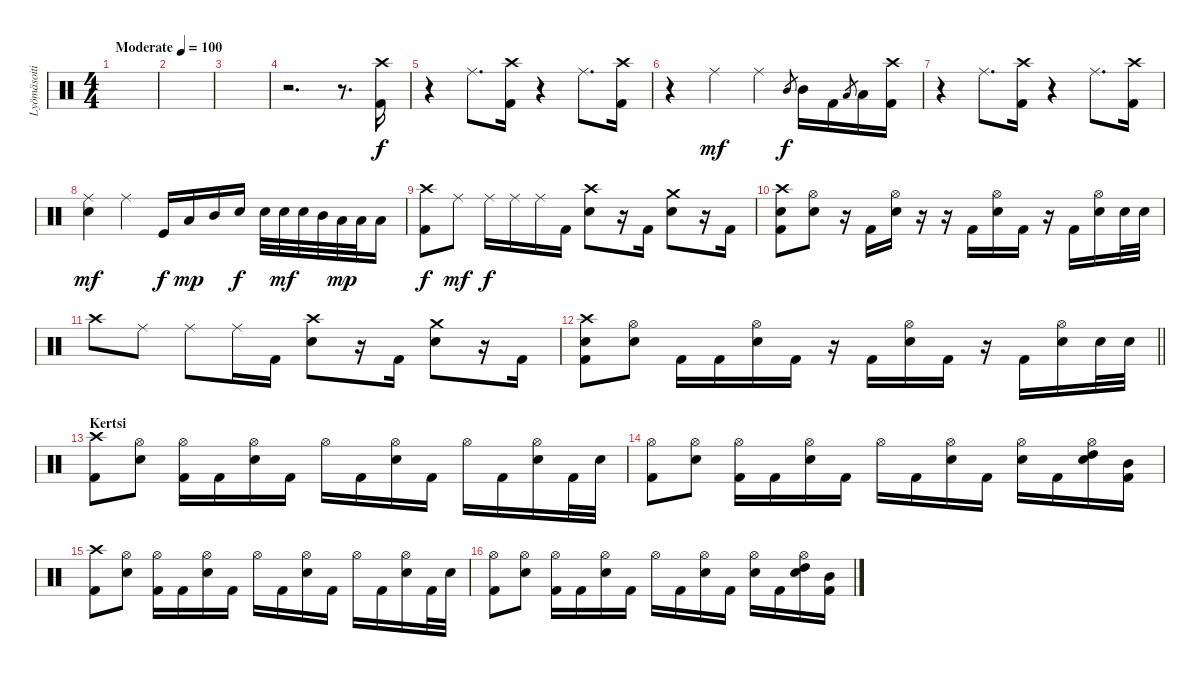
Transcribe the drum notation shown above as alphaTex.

\track ("Lyömäsoitin" "Lyömäsoiti") {instrument percussion}
\staff {score}
\articulation defaults
\ts (4 4)
\tempo (100 "Moderate")
\clef neutral
\ks c
|
|
|
r.2{d} r.8{d} ("Crash high (hit)" "Kick (hit) 2").16 |
r.4 "Ride (middle)".8{d} ("Crash high (hit)" "Kick (hit) 2").16 r.4 "Ride (middle)".8{d} ("Crash high (hit)" "Kick (hit) 2").16 |
r.4 "Ride (middle)".4{dy mf} "Ride (middle)".4 "Mid Tom (hit)".8{gr dy f} "Mid Tom (hit)".16 "Kick (hit) 2".16 "Low Tom (hit)".8{gr} "Low Tom (hit)".16 ("Crash high (hit)" "Kick (hit) 2").16 |
r.4 "Ride (middle)".8{d} ("Crash high (hit)" "Kick (hit) 2").16 r.4 "Ride (middle)".8{d} ("Crash high (hit)" "Kick (hit) 2").16 |
("Ride (middle)" "Snare (hit) 2").4{dy mf} "Ride (middle)".4 "Kick (hit)".16{dy f} "Low Tom (hit)".16{dy mp} "Mid Tom (hit)".16 "Electric Snare (hit)".16{dy f} "Electric Snare (hit)".32 "Electric Snare (hit)".32{dy mf} "Electric Snare (hit)".32 "Mid Tom (hit)".32 "Low Tom (hit)".32{dy mp} "Low Tom (hit)".32 "Low Tom (hit)".16 |
("Crash high (hit)" "Kick (hit) 2").8{dy f} "Ride (middle)".8{dy mf} "Ride (middle)".16{dy f} "Ride (middle)".16 "Ride (middle)".16 "Kick (hit) 2".16 ("Crash high (hit)" "Snare (hit) 2").8 r.16 "Kick (hit) 2".16 ("Crash medium (hit)" "Snare (hit) 2").8 r.16 "Kick (hit) 2".16 |
("Crash high (hit)" "Snare (hit) 2" "Kick (hit) 2").8 ("Hi-Hat (open)" "Snare (hit) 2").8 r.16 "Kick (hit) 2".16 ("Hi-Hat (open)" "Snare (hit) 2").16 r.16 r.16 "Kick (hit) 2".16 ("Hi-Hat (open)" "Snare (hit) 2").16 "Kick (hit) 2".16 r.16 "Kick (hit) 2".16 ("Hi-Hat (open)" "Snare (hit) 2").16 "Snare (hit) 2".32 "Snare (hit) 2".32 |
"Crash high (hit)".8 "Ride (middle)".8 "Ride (middle)".8 "Ride (middle)".16 "Kick (hit) 2".16 ("Crash high (hit)" "Snare (hit) 2").8 r.16 "Kick (hit) 2".16 ("Crash medium (hit)" "Snare (hit) 2").8 r.16 "Kick (hit) 2".16 |
\barLineRight lightlight
("Crash high (hit)" "Snare (hit) 2" "Kick (hit) 2").8 ("Hi-Hat (open)" "Snare (hit) 2").8 "Kick (hit) 2".16 "Kick (hit) 2".16 ("Hi-Hat (open)" "Snare (hit) 2").16 "Kick (hit) 2".16 r.16 "Kick (hit) 2".16 ("Hi-Hat (open)" "Snare (hit) 2").16 "Kick (hit) 2".16 r.16 "Kick (hit) 2".16 ("Hi-Hat (open)" "Snare (hit) 2").16 "Snare (hit) 2".32 "Snare (hit) 2".32 |
\section ("" "Kertsi")
("Crash high (hit)" "Kick (hit) 2").8 ("Hi-Hat (open)" "Snare (hit) 2").8 ("Hi-Hat (open)" "Kick (hit) 2").16 "Kick (hit) 2".16 ("Hi-Hat (open)" "Snare (hit) 2").16 "Kick (hit) 2".16 "Hi-Hat (open)".16 "Kick (hit) 2".16 ("Hi-Hat (open)" "Snare (hit) 2").16 "Kick (hit) 2".16 "Hi-Hat (open)".16 "Kick (hit) 2".16 ("Hi-Hat (open)" "Snare (hit) 2").16 "Kick (hit) 2".32 "Snare (hit) 2".32 |
("Hi-Hat (open)" "Kick (hit) 2").8 ("Hi-Hat (open)" "Snare (hit) 2").8 ("Hi-Hat (open)" "Kick (hit) 2").16 "Kick (hit) 2".16 ("Hi-Hat (open)" "Snare (hit) 2").16 "Kick (hit) 2".16 "Hi-Hat (open)".16 "Kick (hit) 2".16 ("Hi-Hat (open)" "Snare (hit) 2").16 "Kick (hit) 2".16 ("Hi-Hat (open)" "Snare (hit) 2").16 "Kick (hit) 2".16 ("Hi-Hat (open)" "High Tom (hit)" "Snare (hit) 2").16 ("Mid Tom (hit)" "Kick (hit) 2").16 |
("Crash high (hit)" "Kick (hit) 2").8 ("Hi-Hat (open)" "Snare (hit) 2").8 ("Hi-Hat (open)" "Kick (hit) 2").16 "Kick (hit) 2".16 ("Hi-Hat (open)" "Snare (hit) 2").16 "Kick (hit) 2".16 "Hi-Hat (open)".16 "Kick (hit) 2".16 ("Hi-Hat (open)" "Snare (hit) 2").16 "Kick (hit) 2".16 "Hi-Hat (open)".16 "Kick (hit) 2".16 ("Hi-Hat (open)" "Snare (hit) 2").16 "Kick (hit) 2".32 "Snare (hit) 2".32 |
("Hi-Hat (open)" "Kick (hit) 2").8 ("Hi-Hat (open)" "Snare (hit) 2").8 ("Hi-Hat (open)" "Kick (hit) 2").16 "Kick (hit) 2".16 ("Hi-Hat (open)" "Snare (hit) 2").16 "Kick (hit) 2".16 "Hi-Hat (open)".16 "Kick (hit) 2".16 ("Hi-Hat (open)" "Snare (hit) 2").16 "Kick (hit) 2".16 ("Hi-Hat (open)" "Snare (hit) 2").16 "Kick (hit) 2".16 ("Hi-Hat (open)" "High Tom (hit)" "Snare (hit) 2").16 ("Mid Tom (hit)" "Kick (hit) 2").16
